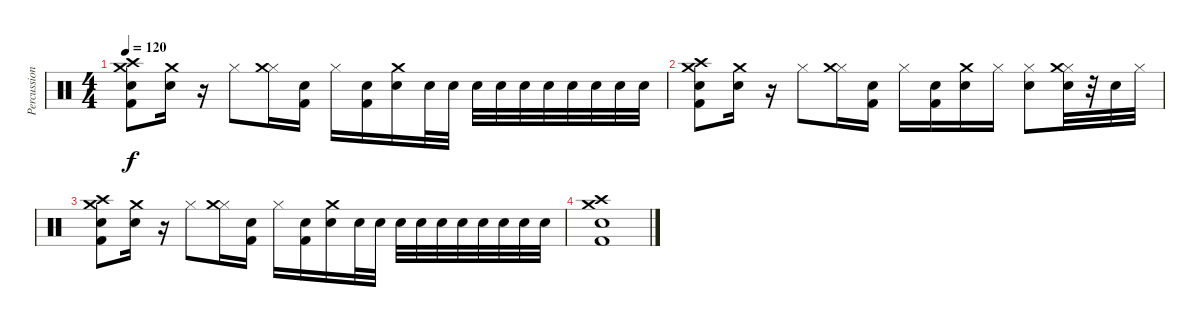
\track ("Percussion" "Percussion") {instrument percussion}
\staff {score}
\articulation defaults
\ts (4 4)
\tempo 120
\clef neutral
\ks c
("Kick (hit) 2" "Snare (hit) 2" "Crash high (hit)" "Crash medium (hit)").8{dy f} ("Snare (hit) 2" "Crash medium (hit)").16 r.16 "Hi-Hat (closed)".8 ("Hi-Hat (closed)" "Crash medium (hit)").16 ("Kick (hit) 2" "Snare (hit) 2").16 "Hi-Hat (closed)".16 ("Kick (hit) 2" "Snare (hit) 2").16 ("Snare (hit) 2" "Crash medium (hit)").16 "Snare (hit) 2".32 "Snare (hit) 2".32 "Snare (hit) 2".32 "Snare (hit) 2".32 "Snare (hit) 2".32 "Snare (hit) 2".32 "Snare (hit) 2".32 "Snare (hit) 2".32 "Snare (hit) 2".32 "Snare (hit) 2".32 |
("Kick (hit) 2" "Snare (hit) 2" "Crash high (hit)" "Crash medium (hit)").8 ("Snare (hit) 2" "Crash medium (hit)").16 r.16 "Hi-Hat (closed)".8 ("Hi-Hat (closed)" "Crash medium (hit)").16 ("Kick (hit) 2" "Snare (hit) 2").16 "Hi-Hat (closed)".16 ("Kick (hit) 2" "Snare (hit) 2").16 ("Snare (hit) 2" "Crash medium (hit)").16 "Hi-Hat (closed)".16 ("Hi-Hat (closed)" "Snare (hit) 2").8 ("Snare (hit) 2" "Hi-Hat (closed)" "Crash medium (hit)").32 r.32 "Snare (hit) 2".32 "Hi-Hat (closed)".32 |
("Kick (hit) 2" "Snare (hit) 2" "Crash high (hit)" "Crash medium (hit)").8 ("Snare (hit) 2" "Crash medium (hit)").16 r.16 "Hi-Hat (closed)".8 ("Hi-Hat (closed)" "Crash medium (hit)").16 ("Kick (hit) 2" "Snare (hit) 2").16 "Hi-Hat (closed)".16 ("Kick (hit) 2" "Snare (hit) 2").16 ("Snare (hit) 2" "Crash medium (hit)").16 "Snare (hit) 2".32 "Snare (hit) 2".32 "Snare (hit) 2".32 "Snare (hit) 2".32 "Snare (hit) 2".32 "Snare (hit) 2".32 "Snare (hit) 2".32 "Snare (hit) 2".32 "Snare (hit) 2".32 "Snare (hit) 2".32 |
("Kick (hit) 2" "Snare (hit) 2" "Crash high (hit)" "Crash medium (hit)").1
